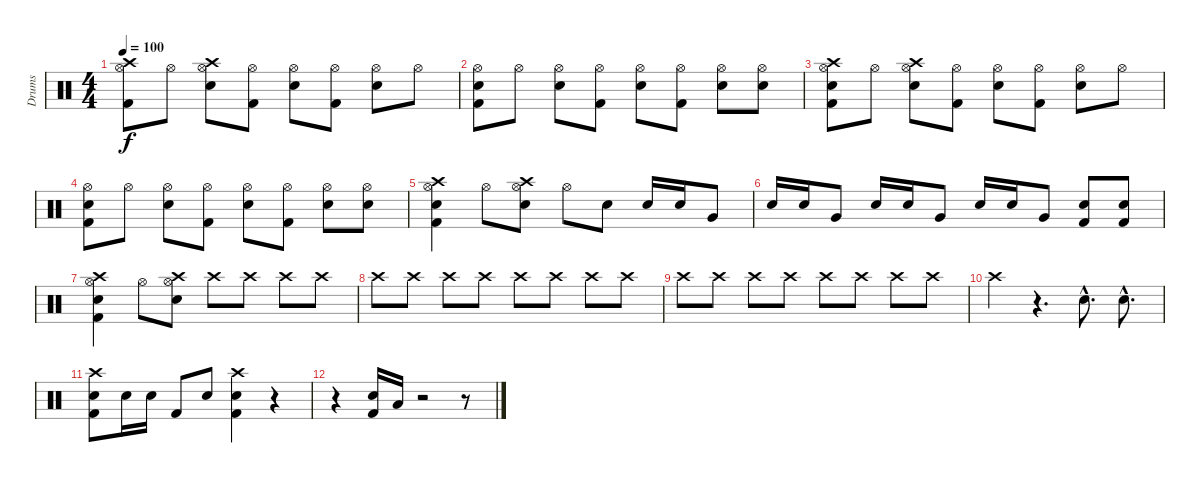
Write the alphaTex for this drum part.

\track ("Drums" "Drums") {instrument percussion}
\staff {score}
\articulation defaults
\ts (4 4)
\tempo 100
\clef neutral
\ks c
("Crash high (hit)" "Hi-Hat (open)" "Kick (hit) 2").8{dy f} "Hi-Hat (open)".8 ("Crash high (hit)" "Hi-Hat (open)" "Electric Snare (hit)").8 ("Hi-Hat (open)" "Kick (hit) 2").8 ("Hi-Hat (open)" "Electric Snare (hit)").8 ("Hi-Hat (open)" "Kick (hit) 2").8 ("Hi-Hat (open)" "Electric Snare (hit)").8 "Hi-Hat (open)".8 |
("Hi-Hat (open)" "Electric Snare (hit)" "Kick (hit) 2").8 "Hi-Hat (open)".8 ("Hi-Hat (open)" "Electric Snare (hit)").8 ("Hi-Hat (open)" "Kick (hit) 2").8 ("Hi-Hat (open)" "Electric Snare (hit)").8 ("Hi-Hat (open)" "Kick (hit) 2").8 ("Hi-Hat (open)" "Electric Snare (hit)").8 ("Hi-Hat (open)" "Electric Snare (hit)").8 |
("Crash high (hit)" "Hi-Hat (open)" "Electric Snare (hit)" "Kick (hit) 2").8 "Hi-Hat (open)".8 ("Crash high (hit)" "Hi-Hat (open)" "Electric Snare (hit)").8 ("Hi-Hat (open)" "Kick (hit) 2").8 ("Hi-Hat (open)" "Electric Snare (hit)").8 ("Hi-Hat (open)" "Kick (hit) 2").8 ("Hi-Hat (open)" "Electric Snare (hit)").8 "Hi-Hat (open)".8 |
("Hi-Hat (open)" "Electric Snare (hit)" "Kick (hit) 2").8 "Hi-Hat (open)".8 ("Hi-Hat (open)" "Electric Snare (hit)").8 ("Hi-Hat (open)" "Kick (hit) 2").8 ("Hi-Hat (open)" "Electric Snare (hit)").8 ("Hi-Hat (open)" "Kick (hit) 2").8 ("Hi-Hat (open)" "Electric Snare (hit)").8 ("Hi-Hat (open)" "Electric Snare (hit)").8 |
("Crash high (hit)" "Hi-Hat (open)" "Electric Snare (hit)" "Kick (hit) 2").4 "Hi-Hat (open)".8 ("Crash high (hit)" "Hi-Hat (open)" "Electric Snare (hit)").8 "Hi-Hat (open)".8 "Electric Snare (hit)".8 "Electric Snare (hit)".16 "Electric Snare (hit)".16 "Very Low Tom (hit)".8 |
"Electric Snare (hit)".16 "Electric Snare (hit)".16 "Very Low Tom (hit)".8 "Electric Snare (hit)".16 "Electric Snare (hit)".16 "Very Low Tom (hit)".8 "Electric Snare (hit)".16 "Electric Snare (hit)".16 "Very Low Tom (hit)".8 ("Electric Snare (hit)" "Kick (hit) 2").8 ("Electric Snare (hit)" "Kick (hit) 2").8 |
("Crash high (hit)" "Hi-Hat (open)" "Electric Snare (hit)" "Kick (hit) 2").4 "Hi-Hat (open)".8 ("Crash high (hit)" "Hi-Hat (open)" "Electric Snare (hit)").8 "Crash high (hit)".8 "Crash high (hit)".8 "Crash high (hit)".8 "Crash high (hit)".8 |
"Crash high (hit)".8 "Crash high (hit)".8 "Crash high (hit)".8 "Crash high (hit)".8 "Crash high (hit)".8 "Crash high (hit)".8 "Crash high (hit)".8 "Crash high (hit)".8 |
"Crash high (hit)".8 "Crash high (hit)".8 "Crash high (hit)".8 "Crash high (hit)".8 "Crash high (hit)".8 "Crash high (hit)".8 "Crash high (hit)".8 "Crash high (hit)".8 |
"Crash high (hit)".4 r.4{d} "Electric Snare (hit)"{hac}.8{d} "Electric Snare (hit)"{hac}.8{d} |
("Crash high (hit)" "Electric Snare (hit)" "Kick (hit) 2").8 "Electric Snare (hit)".16 "Electric Snare (hit)".16 "Kick (hit) 2".8 "Electric Snare (hit)".8 ("Crash high (hit)" "Electric Snare (hit)" "Kick (hit) 2").4 r.4 |
r.4 ("Electric Snare (hit)" "Kick (hit) 2").16 "Low Floor Tom (hit)".16 r.2 r.8
